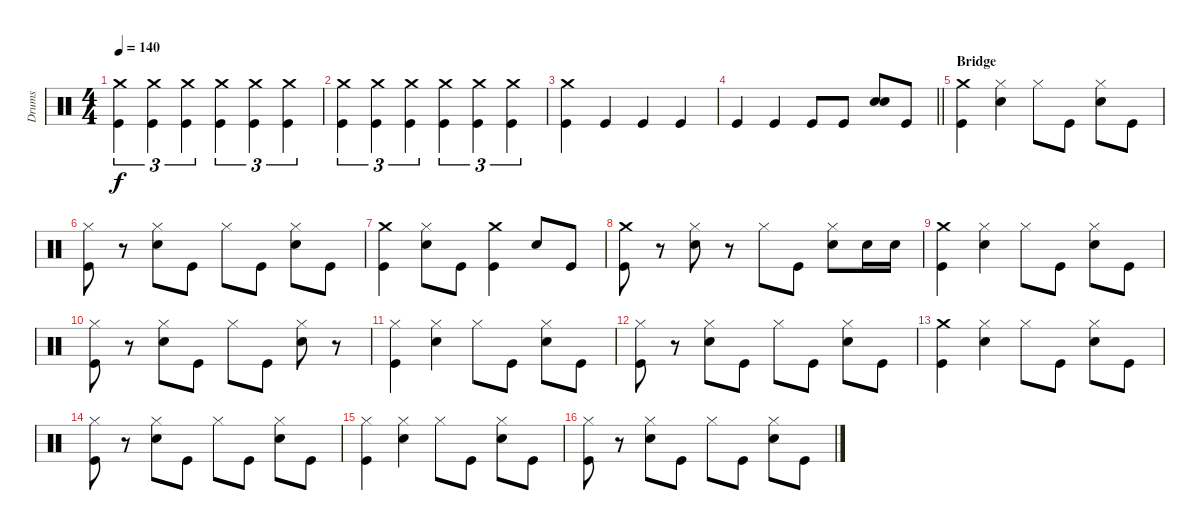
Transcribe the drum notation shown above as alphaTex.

\track ("Drums" "Drums") {instrument percussion}
\staff {score}
\articulation defaults
\ts (4 4)
\tempo 140
\clef neutral
\ks c
("Crash medium (hit)" "Kick (hit)").4{tu (3 2) dy f} ("Crash medium (hit)" "Kick (hit)").4{tu (3 2)} ("Crash medium (hit)" "Kick (hit)").4{tu (3 2)} ("Crash medium (hit)" "Kick (hit)").4{tu (3 2)} ("Crash medium (hit)" "Kick (hit)").4{tu (3 2)} ("Crash medium (hit)" "Kick (hit)").4{tu (3 2)} |
("Crash medium (hit)" "Kick (hit)").4{tu (3 2)} ("Crash medium (hit)" "Kick (hit)").4{tu (3 2)} ("Crash medium (hit)" "Kick (hit)").4{tu (3 2)} ("Crash medium (hit)" "Kick (hit)").4{tu (3 2)} ("Crash medium (hit)" "Kick (hit)").4{tu (3 2)} ("Crash medium (hit)" "Kick (hit)").4{tu (3 2)} |
("Crash medium (hit)" "Kick (hit)").4 "Kick (hit)".4 "Kick (hit)".4 "Kick (hit)".4 |
\barLineRight lightlight "Kick (hit)".4 "Kick (hit)".4 "Kick (hit)".8 "Kick (hit)".8
("Snare (hit) 2" "Snare (hit) 2").8 "Kick (hit)".8 |
\section ("" "Bridge")
("Crash medium (hit)" "Kick (hit)").4 ("Hi-Hat (closed)" "Snare (hit) 2").4 "Hi-Hat (closed)".8 "Kick (hit)".8 ("Hi-Hat (closed)" "Snare (hit) 2").8 "Kick (hit)".8 |
("Hi-Hat (closed)" "Kick (hit)").8 r.8 ("Hi-Hat (closed)" "Snare (hit) 2").8 "Kick (hit)".8 "Hi-Hat (closed)".8 "Kick (hit)".8 ("Hi-Hat (closed)" "Snare (hit) 2").8 "Kick (hit)".8 |
("Crash medium (hit)" "Kick (hit)").4 ("Hi-Hat (closed)" "Snare (hit) 2").8 "Kick (hit)".8 ("Crash medium (hit)" "Kick (hit)").4 "Snare (hit) 2".8 "Kick (hit)".8 |
("Crash medium (hit)" "Kick (hit)").8 r.8 ("Hi-Hat (closed)" "Snare (hit) 2").8 r.8 "Hi-Hat (closed)".8 "Kick (hit)".8 ("Hi-Hat (closed)" "Snare (hit) 2").8 "Snare (hit) 2".16 "Snare (hit) 2".16 |
("Crash medium (hit)" "Kick (hit)").4 ("Hi-Hat (closed)" "Snare (hit) 2").4 "Hi-Hat (closed)".8 "Kick (hit)".8 ("Hi-Hat (closed)" "Snare (hit) 2").8 "Kick (hit)".8 |
("Hi-Hat (closed)" "Kick (hit)").8 r.8 ("Hi-Hat (closed)" "Snare (hit) 2").8 "Kick (hit)".8 "Hi-Hat (closed)".8 "Kick (hit)".8 ("Hi-Hat (closed)" "Snare (hit) 2").8 r.8 |
("Hi-Hat (closed)" "Kick (hit)").4 ("Hi-Hat (closed)" "Snare (hit) 2").4 "Hi-Hat (closed)".8 "Kick (hit)".8 ("Hi-Hat (closed)" "Snare (hit) 2").8 "Kick (hit)".8 |
("Hi-Hat (closed)" "Kick (hit)").8 r.8 ("Hi-Hat (closed)" "Snare (hit) 2").8 "Kick (hit)".8 "Hi-Hat (closed)".8 "Kick (hit)".8 ("Hi-Hat (closed)" "Snare (hit) 2").8 "Kick (hit)".8 |
("Crash medium (hit)" "Kick (hit)").4 ("Hi-Hat (closed)" "Snare (hit) 2").4 "Hi-Hat (closed)".8 "Kick (hit)".8 ("Hi-Hat (closed)" "Snare (hit) 2").8 "Kick (hit)".8 |
("Hi-Hat (closed)" "Kick (hit)").8 r.8 ("Hi-Hat (closed)" "Snare (hit) 2").8 "Kick (hit)".8 "Hi-Hat (closed)".8 "Kick (hit)".8 ("Hi-Hat (closed)" "Snare (hit) 2").8 "Kick (hit)".8 |
("Hi-Hat (closed)" "Kick (hit)").4 ("Hi-Hat (closed)" "Snare (hit) 2").4 "Hi-Hat (closed)".8 "Kick (hit)".8 ("Hi-Hat (closed)" "Snare (hit) 2").8 "Kick (hit)".8 |
("Hi-Hat (closed)" "Kick (hit)").8 r.8 ("Hi-Hat (closed)" "Snare (hit) 2").8 "Kick (hit)".8 "Hi-Hat (closed)".8 "Kick (hit)".8 ("Hi-Hat (closed)" "Snare (hit) 2").8 "Kick (hit)".8
